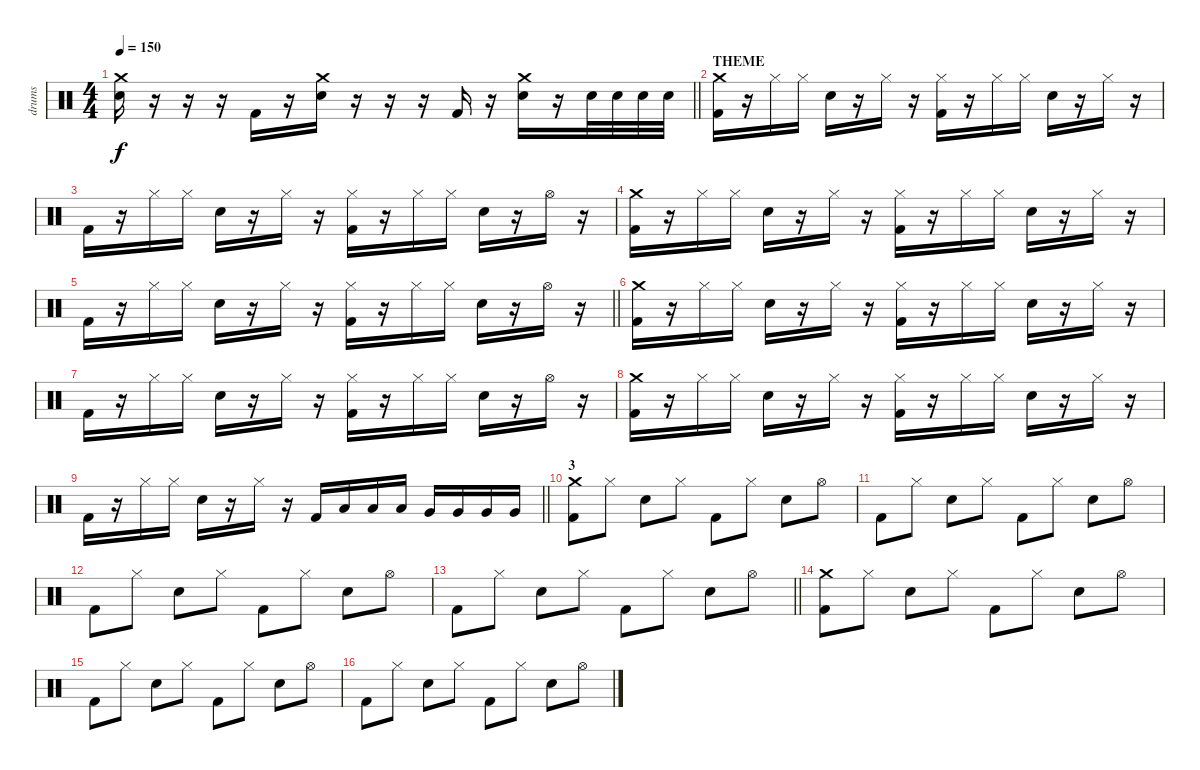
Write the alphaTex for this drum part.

\track ("drums" "drums") {instrument percussion}
\staff {score}
\articulation defaults
\ts (4 4)
\tempo 150
\clef neutral
\barLineRight lightlight
\ks c
("Electric Snare (hit)" "Crash medium (hit)").16{dy f} r.16 r.16 r.16 "Kick (hit) 2".16 r.16 ("Electric Snare (hit)" "Crash medium (hit)").16 r.16 r.16 r.16 "Kick (hit) 2".16 r.16 ("Electric Snare (hit)" "Crash medium (hit)").16 r.16 "Electric Snare (hit)".32 "Electric Snare (hit)".32 "Electric Snare (hit)".32 "Electric Snare (hit)".32 |
\section ("" "THEME")
("Kick (hit) 2" "Crash medium (hit)").16 r.16 "Hi-Hat (closed)".16 "Hi-Hat (closed)".16 "Electric Snare (hit)".16 r.16 "Hi-Hat (closed)".16 r.16 ("Hi-Hat (closed)" "Kick (hit) 2").16 r.16 "Hi-Hat (closed)".16 "Hi-Hat (closed)".16 "Electric Snare (hit)".16 r.16 "Hi-Hat (closed)".16 r.16 |
"Kick (hit) 2".16 r.16 "Hi-Hat (closed)".16 "Hi-Hat (closed)".16 "Electric Snare (hit)".16 r.16 "Hi-Hat (closed)".16 r.16 ("Hi-Hat (closed)" "Kick (hit) 2").16 r.16 "Hi-Hat (closed)".16 "Hi-Hat (closed)".16 "Electric Snare (hit)".16 r.16 "Hi-Hat (open)".16 r.16 |
("Kick (hit) 2" "Crash medium (hit)").16 r.16 "Hi-Hat (closed)".16 "Hi-Hat (closed)".16 "Electric Snare (hit)".16 r.16 "Hi-Hat (closed)".16 r.16 ("Hi-Hat (closed)" "Kick (hit) 2").16 r.16 "Hi-Hat (closed)".16 "Hi-Hat (closed)".16 "Electric Snare (hit)".16 r.16 "Hi-Hat (closed)".16 r.16 |
\barLineRight lightlight "Kick (hit) 2".16
r.16 "Hi-Hat (closed)".16 "Hi-Hat (closed)".16 "Electric Snare (hit)".16 r.16 "Hi-Hat (closed)".16 r.16 ("Hi-Hat (closed)" "Kick (hit) 2").16 r.16 "Hi-Hat (closed)".16 "Hi-Hat (closed)".16 "Electric Snare (hit)".16 r.16 "Hi-Hat (open)".16 r.16 |
("Kick (hit) 2" "Crash medium (hit)").16 r.16 "Hi-Hat (closed)".16 "Hi-Hat (closed)".16 "Electric Snare (hit)".16 r.16 "Hi-Hat (closed)".16 r.16 ("Hi-Hat (closed)" "Kick (hit) 2").16 r.16 "Hi-Hat (closed)".16 "Hi-Hat (closed)".16 "Electric Snare (hit)".16 r.16 "Hi-Hat (closed)".16 r.16 |
"Kick (hit) 2".16 r.16 "Hi-Hat (closed)".16 "Hi-Hat (closed)".16 "Electric Snare (hit)".16 r.16 "Hi-Hat (closed)".16 r.16 ("Hi-Hat (closed)" "Kick (hit) 2").16 r.16 "Hi-Hat (closed)".16 "Hi-Hat (closed)".16 "Electric Snare (hit)".16 r.16 "Hi-Hat (open)".16 r.16 |
("Kick (hit) 2" "Crash medium (hit)").16 r.16 "Hi-Hat (closed)".16 "Hi-Hat (closed)".16 "Electric Snare (hit)".16 r.16 "Hi-Hat (closed)".16 r.16 ("Hi-Hat (closed)" "Kick (hit) 2").16 r.16 "Hi-Hat (closed)".16 "Hi-Hat (closed)".16 "Electric Snare (hit)".16 r.16 "Hi-Hat (closed)".16 r.16 |
\barLineRight lightlight "Kick (hit) 2".16
r.16 "Hi-Hat (closed)".16 "Hi-Hat (closed)".16 "Electric Snare (hit)".16 r.16 "Hi-Hat (closed)".16 r.16 "Kick (hit) 2".16 "Low Floor Tom (hit)".16 "Low Floor Tom (hit)".16 "Low Floor Tom (hit)".16 "Very Low Tom (hit)".16 "Very Low Tom (hit)".16 "Very Low Tom (hit)".16 "Very Low Tom (hit)".16 |
\section ("" "3")
("Kick (hit) 2" "Crash medium (hit)").8 "Hi-Hat (closed)".8 "Electric Snare (hit)".8 "Hi-Hat (closed)".8 "Kick (hit) 2".8 "Hi-Hat (closed)".8 "Electric Snare (hit)".8 "Hi-Hat (open)".8 |
"Kick (hit) 2".8 "Hi-Hat (closed)".8 "Electric Snare (hit)".8 "Hi-Hat (closed)".8 "Kick (hit) 2".8 "Hi-Hat (closed)".8 "Electric Snare (hit)".8 "Hi-Hat (open)".8 |
"Kick (hit) 2".8 "Hi-Hat (closed)".8 "Electric Snare (hit)".8 "Hi-Hat (closed)".8 "Kick (hit) 2".8 "Hi-Hat (closed)".8 "Electric Snare (hit)".8 "Hi-Hat (open)".8 |
\barLineRight lightlight "Kick (hit) 2".8 "Hi-Hat (closed)".8 "Electric Snare (hit)".8 "Hi-Hat (closed)".8 "Kick (hit) 2".8 "Hi-Hat (closed)".8 "Electric Snare (hit)".8 "Hi-Hat (open)".8
|
("Kick (hit) 2" "Crash medium (hit)").8 "Hi-Hat (closed)".8 "Electric Snare (hit)".8 "Hi-Hat (closed)".8 "Kick (hit) 2".8 "Hi-Hat (closed)".8 "Electric Snare (hit)".8 "Hi-Hat (open)".8 |
"Kick (hit) 2".8 "Hi-Hat (closed)".8 "Electric Snare (hit)".8 "Hi-Hat (closed)".8 "Kick (hit) 2".8 "Hi-Hat (closed)".8 "Electric Snare (hit)".8 "Hi-Hat (open)".8 |
"Kick (hit) 2".8 "Hi-Hat (closed)".8 "Electric Snare (hit)".8 "Hi-Hat (closed)".8 "Kick (hit) 2".8 "Hi-Hat (closed)".8 "Electric Snare (hit)".8 "Hi-Hat (open)".8
